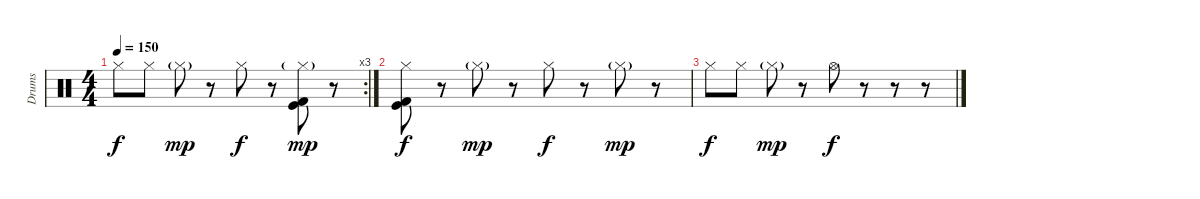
\track ("Drums" "Drums") {instrument percussion}
\staff {score}
\articulation defaults
\rc 3
\ts (4 4)
\tempo 150
\clef neutral
\ks c "Hi-Hat (closed)".8{dy f} "Hi-Hat (closed)".8 "Hi-Hat (closed)"{g}.8{dy mp}
r.8 "Hi-Hat (closed)".8{dy f} r.8 ("Hi-Hat (closed)"{g} "Kick (hit)" "Kick (hit) 2").8{dy mp} r.8 |
("Hi-Hat (closed)" "Kick (hit)" "Kick (hit) 2").8{dy f} r.8 "Hi-Hat (closed)"{g}.8{dy mp} r.8 "Hi-Hat (closed)".8{dy f} r.8 "Hi-Hat (closed)"{g}.8{dy mp} r.8 |
"Hi-Hat (closed)".8{dy f} "Hi-Hat (closed)".8 "Hi-Hat (closed)"{g}.8{dy mp} r.8 "Hi-Hat (open)".8{dy f} r.8 r.8 r.8
